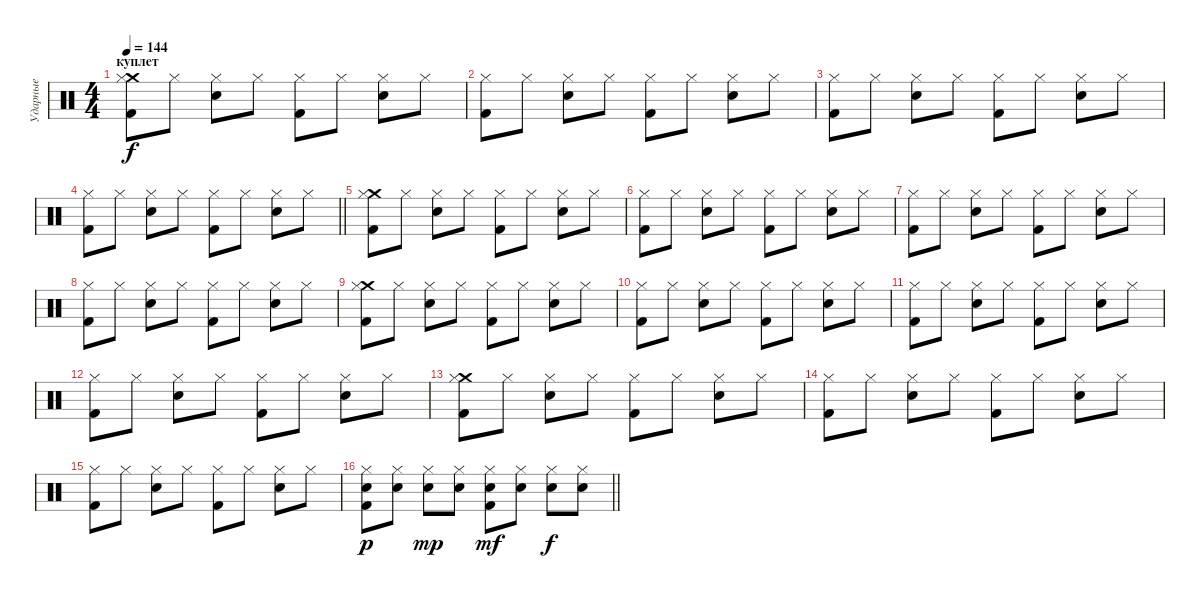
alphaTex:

\track ("Ударные" "Ударные") {instrument percussion}
\staff {score}
\articulation defaults
\ts (4 4)
\section ("" "куплет")
\tempo 144
\clef neutral
\ks c
("Crash medium (hit)" "Hi-Hat (closed)" "Kick (hit) 2").8{dy f} "Hi-Hat (closed)".8 ("Hi-Hat (closed)" "Snare (hit) 2").8 "Hi-Hat (closed)".8 ("Hi-Hat (closed)" "Kick (hit) 2").8 "Hi-Hat (closed)".8 ("Hi-Hat (closed)" "Snare (hit) 2").8 "Hi-Hat (closed)".8 |
("Hi-Hat (closed)" "Kick (hit) 2").8 "Hi-Hat (closed)".8 ("Hi-Hat (closed)" "Snare (hit) 2").8 "Hi-Hat (closed)".8 ("Hi-Hat (closed)" "Kick (hit) 2").8 "Hi-Hat (closed)".8 ("Hi-Hat (closed)" "Snare (hit) 2").8 "Hi-Hat (closed)".8 |
("Hi-Hat (closed)" "Kick (hit) 2").8 "Hi-Hat (closed)".8 ("Hi-Hat (closed)" "Snare (hit) 2").8 "Hi-Hat (closed)".8 ("Hi-Hat (closed)" "Kick (hit) 2").8 "Hi-Hat (closed)".8 ("Hi-Hat (closed)" "Snare (hit) 2").8 "Hi-Hat (closed)".8 |
\barLineRight lightlight
("Hi-Hat (closed)" "Kick (hit) 2").8 "Hi-Hat (closed)".8 ("Hi-Hat (closed)" "Snare (hit) 2").8 "Hi-Hat (closed)".8 ("Hi-Hat (closed)" "Kick (hit) 2").8 "Hi-Hat (closed)".8 ("Hi-Hat (closed)" "Snare (hit) 2").8 "Hi-Hat (closed)".8 |
("Crash medium (hit)" "Hi-Hat (closed)" "Kick (hit) 2").8 "Hi-Hat (closed)".8 ("Hi-Hat (closed)" "Snare (hit) 2").8 "Hi-Hat (closed)".8 ("Hi-Hat (closed)" "Kick (hit) 2").8 "Hi-Hat (closed)".8 ("Hi-Hat (closed)" "Snare (hit) 2").8 "Hi-Hat (closed)".8 |
("Hi-Hat (closed)" "Kick (hit) 2").8 "Hi-Hat (closed)".8 ("Hi-Hat (closed)" "Snare (hit) 2").8 "Hi-Hat (closed)".8 ("Hi-Hat (closed)" "Kick (hit) 2").8 "Hi-Hat (closed)".8 ("Hi-Hat (closed)" "Snare (hit) 2").8 "Hi-Hat (closed)".8 |
("Hi-Hat (closed)" "Kick (hit) 2").8 "Hi-Hat (closed)".8 ("Hi-Hat (closed)" "Snare (hit) 2").8 "Hi-Hat (closed)".8 ("Hi-Hat (closed)" "Kick (hit) 2").8 "Hi-Hat (closed)".8 ("Hi-Hat (closed)" "Snare (hit) 2").8 "Hi-Hat (closed)".8 |
("Hi-Hat (closed)" "Kick (hit) 2").8 "Hi-Hat (closed)".8 ("Hi-Hat (closed)" "Snare (hit) 2").8 "Hi-Hat (closed)".8 ("Hi-Hat (closed)" "Kick (hit) 2").8 "Hi-Hat (closed)".8 ("Hi-Hat (closed)" "Snare (hit) 2").8 "Hi-Hat (closed)".8 |
("Crash medium (hit)" "Hi-Hat (closed)" "Kick (hit) 2").8 "Hi-Hat (closed)".8 ("Hi-Hat (closed)" "Snare (hit) 2").8 "Hi-Hat (closed)".8 ("Hi-Hat (closed)" "Kick (hit) 2").8 "Hi-Hat (closed)".8 ("Hi-Hat (closed)" "Snare (hit) 2").8 "Hi-Hat (closed)".8 |
("Hi-Hat (closed)" "Kick (hit) 2").8 "Hi-Hat (closed)".8 ("Hi-Hat (closed)" "Snare (hit) 2").8 "Hi-Hat (closed)".8 ("Hi-Hat (closed)" "Kick (hit) 2").8 "Hi-Hat (closed)".8 ("Hi-Hat (closed)" "Snare (hit) 2").8 "Hi-Hat (closed)".8 |
("Hi-Hat (closed)" "Kick (hit) 2").8 "Hi-Hat (closed)".8 ("Hi-Hat (closed)" "Snare (hit) 2").8 "Hi-Hat (closed)".8 ("Hi-Hat (closed)" "Kick (hit) 2").8 "Hi-Hat (closed)".8 ("Hi-Hat (closed)" "Snare (hit) 2").8 "Hi-Hat (closed)".8 |
("Hi-Hat (closed)" "Kick (hit) 2").8 "Hi-Hat (closed)".8 ("Hi-Hat (closed)" "Snare (hit) 2").8 "Hi-Hat (closed)".8 ("Hi-Hat (closed)" "Kick (hit) 2").8 "Hi-Hat (closed)".8 ("Hi-Hat (closed)" "Snare (hit) 2").8 "Hi-Hat (closed)".8 |
("Crash medium (hit)" "Hi-Hat (closed)" "Kick (hit) 2").8 "Hi-Hat (closed)".8 ("Hi-Hat (closed)" "Snare (hit) 2").8 "Hi-Hat (closed)".8 ("Hi-Hat (closed)" "Kick (hit) 2").8 "Hi-Hat (closed)".8 ("Hi-Hat (closed)" "Snare (hit) 2").8 "Hi-Hat (closed)".8 |
("Hi-Hat (closed)" "Kick (hit) 2").8 "Hi-Hat (closed)".8 ("Hi-Hat (closed)" "Snare (hit) 2").8 "Hi-Hat (closed)".8 ("Hi-Hat (closed)" "Kick (hit) 2").8 "Hi-Hat (closed)".8 ("Hi-Hat (closed)" "Snare (hit) 2").8 "Hi-Hat (closed)".8 |
("Hi-Hat (closed)" "Kick (hit) 2").8 "Hi-Hat (closed)".8 ("Hi-Hat (closed)" "Snare (hit) 2").8 "Hi-Hat (closed)".8 ("Hi-Hat (closed)" "Kick (hit) 2").8 "Hi-Hat (closed)".8 ("Hi-Hat (closed)" "Snare (hit) 2").8 "Hi-Hat (closed)".8 |
\barLineRight lightlight
("Kick (hit) 2" "Hi-Hat (closed)" "Snare (hit) 2").8{dy p} ("Hi-Hat (closed)" "Snare (hit) 2").8 ("Hi-Hat (closed)" "Snare (hit) 2").8{dy mp} ("Hi-Hat (closed)" "Snare (hit) 2").8 ("Kick (hit) 2" "Hi-Hat (closed)" "Snare (hit) 2").8{dy mf} ("Hi-Hat (closed)" "Snare (hit) 2").8 ("Hi-Hat (closed)" "Snare (hit) 2").8{dy f} ("Hi-Hat (closed)" "Snare (hit) 2").8
